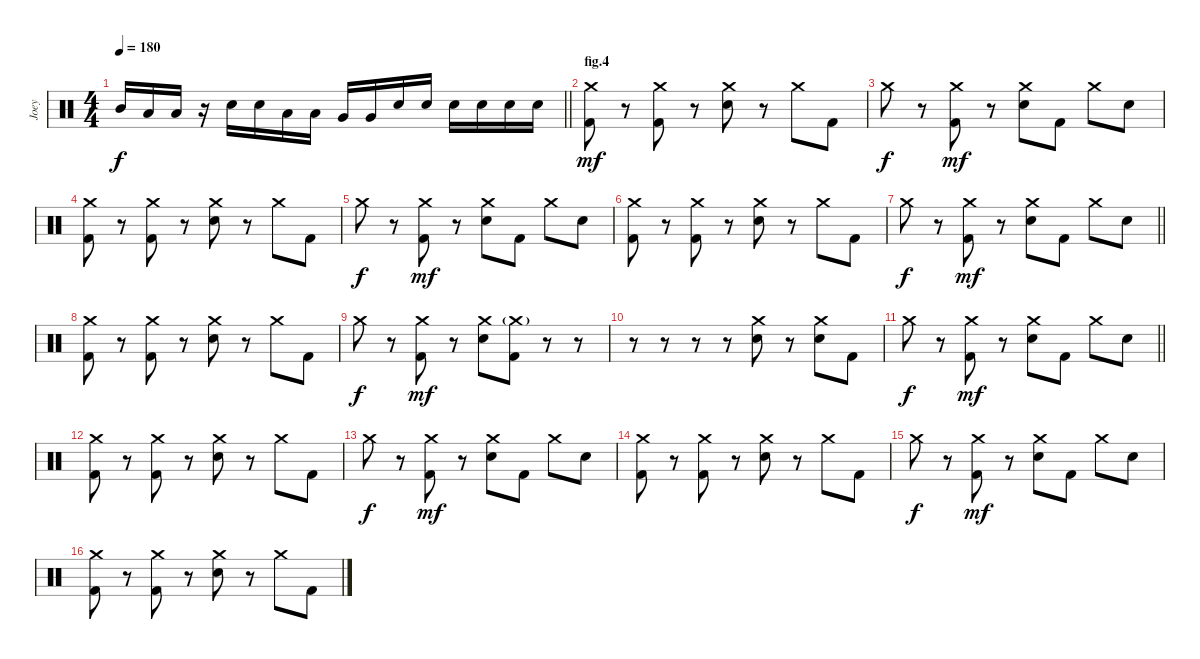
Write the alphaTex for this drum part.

\track ("Joey" "Joey") {instrument percussion}
\staff {score}
\articulation defaults
\ts (4 4)
\tempo 180
\clef neutral
\barLineRight lightlight
\ks c "Mid Tom (hit)".16{dy f} "Low Tom (hit)".16 "Low Tom (hit)".16
r.16 "Electric Snare (hit)".16 "Electric Snare (hit)".16 "Low Tom (hit)".16 "Low Tom (hit)".16 "Very Low Tom (hit)".16 "Very Low Tom (hit)".16 "Electric Snare (hit)".16 "Electric Snare (hit)".16 "Electric Snare (hit)".16 "Electric Snare (hit)".16 "Electric Snare (hit)".16 "Electric Snare (hit)".16 |
\section ("" "fig.4")
("Crash medium (hit)" "Kick (hit) 2").8{dy mf} r.8 ("Crash medium (hit)" "Kick (hit) 2").8 r.8 ("Crash medium (hit)" "Electric Snare (hit)").8 r.8 "Crash medium (hit)".8 "Kick (hit) 2".8 |
"Crash medium (hit)".8{dy f} r.8 ("Crash medium (hit)" "Kick (hit) 2").8{dy mf} r.8 ("Crash medium (hit)" "Electric Snare (hit)").8 "Kick (hit) 2".8 "Crash medium (hit)".8 "Electric Snare (hit)".8 |
("Crash medium (hit)" "Kick (hit) 2").8 r.8 ("Crash medium (hit)" "Kick (hit) 2").8 r.8 ("Crash medium (hit)" "Electric Snare (hit)").8 r.8 "Crash medium (hit)".8 "Kick (hit) 2".8 |
"Crash medium (hit)".8{dy f} r.8 ("Crash medium (hit)" "Kick (hit) 2").8{dy mf} r.8 ("Crash medium (hit)" "Electric Snare (hit)").8 "Kick (hit) 2".8 "Crash medium (hit)".8 "Electric Snare (hit)".8 |
("Crash medium (hit)" "Kick (hit) 2").8 r.8 ("Crash medium (hit)" "Kick (hit) 2").8 r.8 ("Crash medium (hit)" "Electric Snare (hit)").8 r.8 "Crash medium (hit)".8 "Kick (hit) 2".8 |
\barLineRight lightlight "Crash medium (hit)".8{dy f}
r.8 ("Crash medium (hit)" "Kick (hit) 2").8{dy mf} r.8 ("Crash medium (hit)" "Electric Snare (hit)").8 "Kick (hit) 2".8 "Crash medium (hit)".8 "Electric Snare (hit)".8 |
\section ("" "")
("Crash medium (hit)" "Kick (hit) 2").8 r.8 ("Crash medium (hit)" "Kick (hit) 2").8 r.8 ("Crash medium (hit)" "Electric Snare (hit)").8 r.8 "Crash medium (hit)".8 "Kick (hit) 2".8 |
"Crash medium (hit)".8{dy f} r.8 ("Crash medium (hit)" "Kick (hit) 2").8{dy mf} r.8 ("Crash medium (hit)" "Electric Snare (hit)").8 ("Crash medium (hit)"{g} "Kick (hit) 2").8 r.8 r.8 |
r.8 r.8 r.8 r.8 ("Crash medium (hit)" "Electric Snare (hit)").8 r.8 ("Crash medium (hit)" "Electric Snare (hit)").8 "Kick (hit) 2".8 |
\barLineRight lightlight "Crash medium (hit)".8{dy f}
r.8 ("Crash medium (hit)" "Kick (hit) 2").8{dy mf} r.8 ("Crash medium (hit)" "Electric Snare (hit)").8 "Kick (hit) 2".8 "Crash medium (hit)".8 "Electric Snare (hit)".8 |
\section ("" "")
("Crash medium (hit)" "Kick (hit) 2").8 r.8 ("Crash medium (hit)" "Kick (hit) 2").8 r.8 ("Crash medium (hit)" "Electric Snare (hit)").8 r.8 "Crash medium (hit)".8 "Kick (hit) 2".8 |
"Crash medium (hit)".8{dy f} r.8 ("Crash medium (hit)" "Kick (hit) 2").8{dy mf} r.8 ("Crash medium (hit)" "Electric Snare (hit)").8 "Kick (hit) 2".8 "Crash medium (hit)".8 "Electric Snare (hit)".8 |
("Crash medium (hit)" "Kick (hit) 2").8 r.8 ("Crash medium (hit)" "Kick (hit) 2").8 r.8 ("Crash medium (hit)" "Electric Snare (hit)").8 r.8 "Crash medium (hit)".8 "Kick (hit) 2".8 |
"Crash medium (hit)".8{dy f} r.8 ("Crash medium (hit)" "Kick (hit) 2").8{dy mf} r.8 ("Crash medium (hit)" "Electric Snare (hit)").8 "Kick (hit) 2".8 "Crash medium (hit)".8 "Electric Snare (hit)".8 |
("Crash medium (hit)" "Kick (hit) 2").8 r.8 ("Crash medium (hit)" "Kick (hit) 2").8 r.8 ("Crash medium (hit)" "Electric Snare (hit)").8 r.8 "Crash medium (hit)".8 "Kick (hit) 2".8
